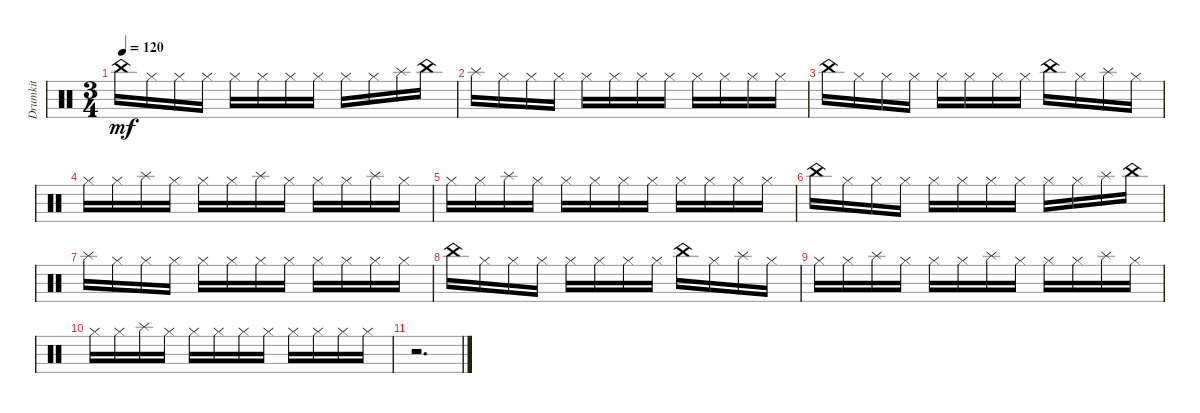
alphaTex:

\track ("Drumkit" "Drumkit") {instrument percussion}
\staff {score}
\articulation defaults
\ts (3 4)
\tempo 120
\clef neutral
\ks c "China (hit)".16{dy mf} "Hi-Hat (closed)".16 "Hi-Hat (closed)".16 "Hi-Hat (closed)".16 "Hi-Hat (closed)".16 "Hi-Hat (closed)".16 "Hi-Hat (closed)".16 "Hi-Hat (closed)".16 "Hi-Hat (closed)".16 "Hi-Hat (closed)".16 "Splash (hit)".16 "China (hit)".16
|
"Splash (hit)".16 "Hi-Hat (closed)".16 "Hi-Hat (closed)".16 "Hi-Hat (closed)".16 "Hi-Hat (closed)".16 "Hi-Hat (closed)".16 "Hi-Hat (closed)".16 "Hi-Hat (closed)".16 "Hi-Hat (closed)".16 "Hi-Hat (closed)".16 "Hi-Hat (closed)".16 "Hi-Hat (closed)".16 |
"China (hit)".16 "Hi-Hat (closed)".16 "Hi-Hat (closed)".16 "Hi-Hat (closed)".16 "Hi-Hat (closed)".16 "Hi-Hat (closed)".16 "Hi-Hat (closed)".16 "Hi-Hat (closed)".16 "China (hit)".16 "Hi-Hat (closed)".16 "Splash (hit)".16 "Hi-Hat (closed)".16 |
"Hi-Hat (closed)".16 "Hi-Hat (closed)".16 "Splash (hit)".16 "Hi-Hat (closed)".16 "Hi-Hat (closed)".16 "Hi-Hat (closed)".16 "Splash (hit)".16 "Hi-Hat (closed)".16 "Hi-Hat (closed)".16 "Hi-Hat (closed)".16 "Splash (hit)".16 "Hi-Hat (closed)".16 |
"Hi-Hat (closed)".16 "Hi-Hat (closed)".16 "Splash (hit)".16 "Hi-Hat (closed)".16 "Hi-Hat (closed)".16 "Hi-Hat (closed)".16 "Hi-Hat (closed)".16 "Hi-Hat (closed)".16 "Hi-Hat (closed)".16 "Hi-Hat (closed)".16 "Hi-Hat (closed)".16 "Hi-Hat (closed)".16 |
"China (hit)".16 "Hi-Hat (closed)".16 "Hi-Hat (closed)".16 "Hi-Hat (closed)".16 "Hi-Hat (closed)".16 "Hi-Hat (closed)".16 "Hi-Hat (closed)".16 "Hi-Hat (closed)".16 "Hi-Hat (closed)".16 "Hi-Hat (closed)".16 "Splash (hit)".16 "China (hit)".16 |
"Splash (hit)".16 "Hi-Hat (closed)".16 "Hi-Hat (closed)".16 "Hi-Hat (closed)".16 "Hi-Hat (closed)".16 "Hi-Hat (closed)".16 "Hi-Hat (closed)".16 "Hi-Hat (closed)".16 "Hi-Hat (closed)".16 "Hi-Hat (closed)".16 "Hi-Hat (closed)".16 "Hi-Hat (closed)".16 |
"China (hit)".16 "Hi-Hat (closed)".16 "Hi-Hat (closed)".16 "Hi-Hat (closed)".16 "Hi-Hat (closed)".16 "Hi-Hat (closed)".16 "Hi-Hat (closed)".16 "Hi-Hat (closed)".16 "China (hit)".16 "Hi-Hat (closed)".16 "Splash (hit)".16 "Hi-Hat (closed)".16 |
"Hi-Hat (closed)".16 "Hi-Hat (closed)".16 "Splash (hit)".16 "Hi-Hat (closed)".16 "Hi-Hat (closed)".16 "Hi-Hat (closed)".16 "Splash (hit)".16 "Hi-Hat (closed)".16 "Hi-Hat (closed)".16 "Hi-Hat (closed)".16 "Splash (hit)".16 "Hi-Hat (closed)".16 |
"Hi-Hat (closed)".16 "Hi-Hat (closed)".16 "Splash (hit)".16 "Hi-Hat (closed)".16 "Hi-Hat (closed)".16 "Hi-Hat (closed)".16 "Hi-Hat (closed)".16 "Hi-Hat (closed)".16 "Hi-Hat (closed)".16 "Hi-Hat (closed)".16 "Hi-Hat (closed)".16 "Hi-Hat (closed)".16 |
r.2{d}
